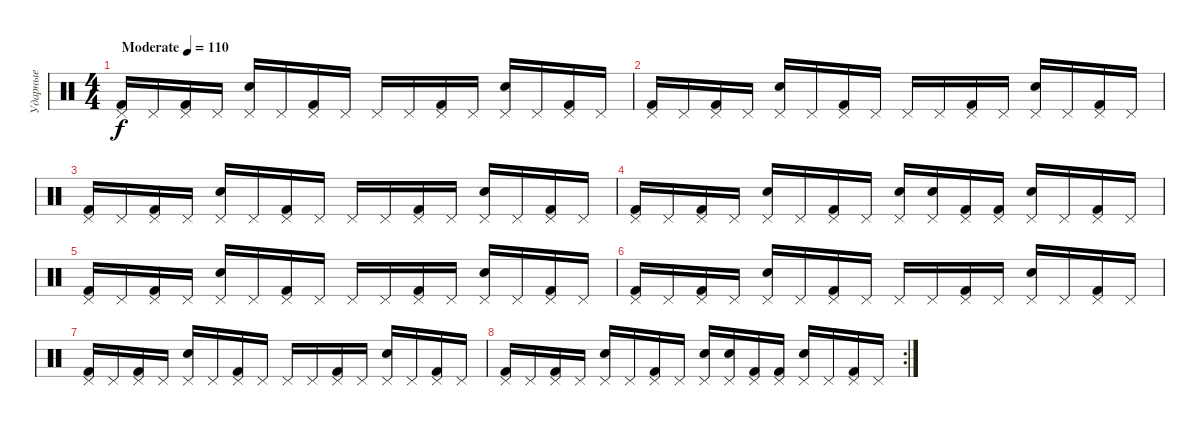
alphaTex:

\track ("Ударные" "Ударные") {instrument percussion}
\staff {score}
\articulation defaults
\ts (4 4)
\tempo (110 "Moderate")
\clef neutral
\ks c
("Pedal Hi-Hat (hit)" "Kick (hit) 2").16{dy f} "Pedal Hi-Hat (hit)".16 ("Pedal Hi-Hat (hit)" "Kick (hit) 2").16 "Pedal Hi-Hat (hit)".16 ("Pedal Hi-Hat (hit)" "Electric Snare (hit)").16 "Pedal Hi-Hat (hit)".16 ("Pedal Hi-Hat (hit)" "Kick (hit) 2").16 "Pedal Hi-Hat (hit)".16 "Pedal Hi-Hat (hit)".16 "Pedal Hi-Hat (hit)".16 ("Pedal Hi-Hat (hit)" "Kick (hit) 2").16 "Pedal Hi-Hat (hit)".16 ("Pedal Hi-Hat (hit)" "Electric Snare (hit)").16 "Pedal Hi-Hat (hit)".16 ("Pedal Hi-Hat (hit)" "Kick (hit) 2").16 "Pedal Hi-Hat (hit)".16 |
("Pedal Hi-Hat (hit)" "Kick (hit) 2").16 "Pedal Hi-Hat (hit)".16 ("Pedal Hi-Hat (hit)" "Kick (hit) 2").16 "Pedal Hi-Hat (hit)".16 ("Pedal Hi-Hat (hit)" "Electric Snare (hit)").16 "Pedal Hi-Hat (hit)".16 ("Pedal Hi-Hat (hit)" "Kick (hit) 2").16 "Pedal Hi-Hat (hit)".16 "Pedal Hi-Hat (hit)".16 "Pedal Hi-Hat (hit)".16 ("Pedal Hi-Hat (hit)" "Kick (hit) 2").16 "Pedal Hi-Hat (hit)".16 ("Pedal Hi-Hat (hit)" "Electric Snare (hit)").16 "Pedal Hi-Hat (hit)".16 ("Pedal Hi-Hat (hit)" "Kick (hit) 2").16 "Pedal Hi-Hat (hit)".16 |
("Pedal Hi-Hat (hit)" "Kick (hit) 2").16 "Pedal Hi-Hat (hit)".16 ("Pedal Hi-Hat (hit)" "Kick (hit) 2").16 "Pedal Hi-Hat (hit)".16 ("Pedal Hi-Hat (hit)" "Electric Snare (hit)").16 "Pedal Hi-Hat (hit)".16 ("Pedal Hi-Hat (hit)" "Kick (hit) 2").16 "Pedal Hi-Hat (hit)".16 "Pedal Hi-Hat (hit)".16 "Pedal Hi-Hat (hit)".16 ("Pedal Hi-Hat (hit)" "Kick (hit) 2").16 "Pedal Hi-Hat (hit)".16 ("Pedal Hi-Hat (hit)" "Electric Snare (hit)").16 "Pedal Hi-Hat (hit)".16 ("Pedal Hi-Hat (hit)" "Kick (hit) 2").16 "Pedal Hi-Hat (hit)".16 |
("Pedal Hi-Hat (hit)" "Kick (hit) 2").16 "Pedal Hi-Hat (hit)".16 ("Pedal Hi-Hat (hit)" "Kick (hit) 2").16 "Pedal Hi-Hat (hit)".16 ("Pedal Hi-Hat (hit)" "Electric Snare (hit)").16 "Pedal Hi-Hat (hit)".16 ("Pedal Hi-Hat (hit)" "Kick (hit) 2").16 "Pedal Hi-Hat (hit)".16 ("Pedal Hi-Hat (hit)" "Electric Snare (hit)").16 ("Pedal Hi-Hat (hit)" "Electric Snare (hit)").16 ("Pedal Hi-Hat (hit)" "Kick (hit) 2").16 ("Pedal Hi-Hat (hit)" "Kick (hit) 2").16 ("Pedal Hi-Hat (hit)" "Electric Snare (hit)").16 "Pedal Hi-Hat (hit)".16 ("Pedal Hi-Hat (hit)" "Kick (hit) 2").16 "Pedal Hi-Hat (hit)".16 |
("Pedal Hi-Hat (hit)" "Kick (hit) 2").16 "Pedal Hi-Hat (hit)".16 ("Pedal Hi-Hat (hit)" "Kick (hit) 2").16 "Pedal Hi-Hat (hit)".16 ("Pedal Hi-Hat (hit)" "Electric Snare (hit)").16 "Pedal Hi-Hat (hit)".16 ("Pedal Hi-Hat (hit)" "Kick (hit) 2").16 "Pedal Hi-Hat (hit)".16 "Pedal Hi-Hat (hit)".16 "Pedal Hi-Hat (hit)".16 ("Pedal Hi-Hat (hit)" "Kick (hit) 2").16 "Pedal Hi-Hat (hit)".16 ("Pedal Hi-Hat (hit)" "Electric Snare (hit)").16 "Pedal Hi-Hat (hit)".16 ("Pedal Hi-Hat (hit)" "Kick (hit) 2").16 "Pedal Hi-Hat (hit)".16 |
("Pedal Hi-Hat (hit)" "Kick (hit) 2").16 "Pedal Hi-Hat (hit)".16 ("Pedal Hi-Hat (hit)" "Kick (hit) 2").16 "Pedal Hi-Hat (hit)".16 ("Pedal Hi-Hat (hit)" "Electric Snare (hit)").16 "Pedal Hi-Hat (hit)".16 ("Pedal Hi-Hat (hit)" "Kick (hit) 2").16 "Pedal Hi-Hat (hit)".16 "Pedal Hi-Hat (hit)".16 "Pedal Hi-Hat (hit)".16 ("Pedal Hi-Hat (hit)" "Kick (hit) 2").16 "Pedal Hi-Hat (hit)".16 ("Pedal Hi-Hat (hit)" "Electric Snare (hit)").16 "Pedal Hi-Hat (hit)".16 ("Pedal Hi-Hat (hit)" "Kick (hit) 2").16 "Pedal Hi-Hat (hit)".16 |
("Pedal Hi-Hat (hit)" "Kick (hit) 2").16 "Pedal Hi-Hat (hit)".16 ("Pedal Hi-Hat (hit)" "Kick (hit) 2").16 "Pedal Hi-Hat (hit)".16 ("Pedal Hi-Hat (hit)" "Electric Snare (hit)").16 "Pedal Hi-Hat (hit)".16 ("Pedal Hi-Hat (hit)" "Kick (hit) 2").16 "Pedal Hi-Hat (hit)".16 "Pedal Hi-Hat (hit)".16 "Pedal Hi-Hat (hit)".16 ("Pedal Hi-Hat (hit)" "Kick (hit) 2").16 "Pedal Hi-Hat (hit)".16 ("Pedal Hi-Hat (hit)" "Electric Snare (hit)").16 "Pedal Hi-Hat (hit)".16 ("Pedal Hi-Hat (hit)" "Kick (hit) 2").16 "Pedal Hi-Hat (hit)".16 |
\rc 2
("Pedal Hi-Hat (hit)" "Kick (hit) 2").16 "Pedal Hi-Hat (hit)".16 ("Pedal Hi-Hat (hit)" "Kick (hit) 2").16 "Pedal Hi-Hat (hit)".16 ("Pedal Hi-Hat (hit)" "Electric Snare (hit)").16 "Pedal Hi-Hat (hit)".16 ("Pedal Hi-Hat (hit)" "Kick (hit) 2").16 "Pedal Hi-Hat (hit)".16 ("Pedal Hi-Hat (hit)" "Electric Snare (hit)").16 ("Pedal Hi-Hat (hit)" "Electric Snare (hit)").16 ("Pedal Hi-Hat (hit)" "Kick (hit) 2").16 ("Pedal Hi-Hat (hit)" "Kick (hit) 2").16 ("Pedal Hi-Hat (hit)" "Electric Snare (hit)").16 "Pedal Hi-Hat (hit)".16 ("Pedal Hi-Hat (hit)" "Kick (hit) 2").16 "Pedal Hi-Hat (hit)".16
